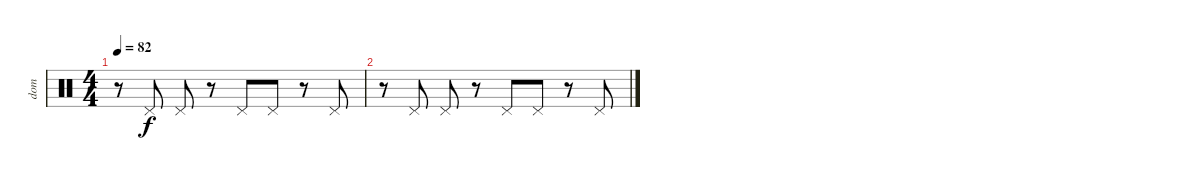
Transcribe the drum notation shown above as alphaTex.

\track ("dom" "dom") {instrument percussion}
\staff {score}
\articulation defaults
\ts (4 4)
\tempo 82
\clef neutral
\ks c
r.8{dy f} "Pedal Hi-Hat (hit)".8 "Pedal Hi-Hat (hit)".8 r.8 "Pedal Hi-Hat (hit)".8 "Pedal Hi-Hat (hit)".8 r.8 "Pedal Hi-Hat (hit)".8 |
r.8 "Pedal Hi-Hat (hit)".8 "Pedal Hi-Hat (hit)".8 r.8 "Pedal Hi-Hat (hit)".8 "Pedal Hi-Hat (hit)".8 r.8 "Pedal Hi-Hat (hit)".8
